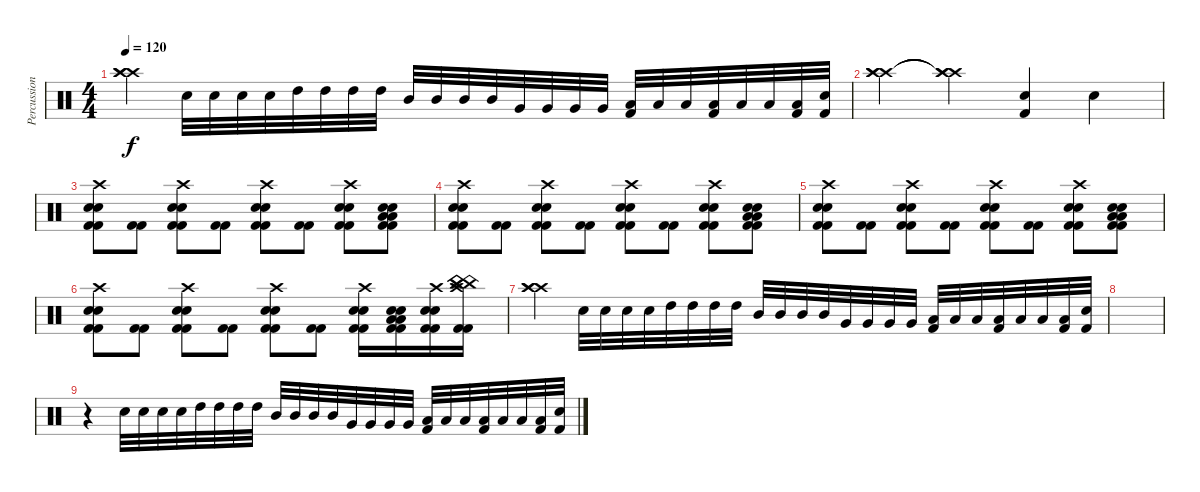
\track ("Percussions" "Percussion") {instrument percussion}
\staff {score}
\articulation defaults
\ts (4 4)
\tempo 120
\clef neutral
\ks c
("Crash high (hit)" "Crash high (hit)" "Crash high (hit)").4{dy f} "Electric Snare (hit)".32 "Electric Snare (hit)".32 "Electric Snare (hit)".32 "Electric Snare (hit)".32 "High Tom (hit)".32 "High Tom (hit)".32 "High Tom (hit)".32 "High Tom (hit)".32 "Mid Tom (hit)".32 "Mid Tom (hit)".32 "Mid Tom (hit)".32 "Mid Tom (hit)".32 "Very Low Tom (hit)".32 "Very Low Tom (hit)".32 "Very Low Tom (hit)".32 "Very Low Tom (hit)".32 ("Low Floor Tom (hit)" "Kick (hit) 2").32 "Low Floor Tom (hit)".32 "Low Floor Tom (hit)".32 ("Low Floor Tom (hit)" "Kick (hit) 2").32 "Low Floor Tom (hit)".32 "Low Floor Tom (hit)".32 ("Low Floor Tom (hit)" "Kick (hit) 2").32 ("Electric Snare (hit)" "Kick (hit) 2").32 |
("Crash high (hit)" "Crash high (hit)" "Crash high (hit)").4 ("Crash high (hit)"{t} "Crash high (hit)"{t} "Crash high (hit)"{t}).4 ("Electric Snare (hit)" "Kick (hit) 2").4 "Electric Snare (hit)".4 |
("Crash high (hit)" "Electric Snare (hit)" "Electric Snare (hit)" "Kick (hit) 2" "Kick (hit) 2").8 ("Kick (hit) 2" "Kick (hit) 2").8 ("Crash high (hit)" "Electric Snare (hit)" "Electric Snare (hit)" "Kick (hit) 2" "Kick (hit) 2").8 ("Kick (hit) 2" "Kick (hit) 2").8 ("Crash high (hit)" "Electric Snare (hit)" "Electric Snare (hit)" "Kick (hit) 2" "Kick (hit) 2").8 ("Kick (hit) 2" "Kick (hit) 2").8 ("Crash high (hit)" "Electric Snare (hit)" "Electric Snare (hit)" "Kick (hit) 2" "Kick (hit) 2").8 ("Low Floor Tom (hit)" "Low Floor Tom (hit)" "Electric Snare (hit)" "Electric Snare (hit)" "Kick (hit) 2" "Kick (hit) 2").8 |
("Crash high (hit)" "Electric Snare (hit)" "Electric Snare (hit)" "Kick (hit) 2" "Kick (hit) 2").8 ("Kick (hit) 2" "Kick (hit) 2").8 ("Crash high (hit)" "Electric Snare (hit)" "Electric Snare (hit)" "Kick (hit) 2" "Kick (hit) 2").8 ("Kick (hit) 2" "Kick (hit) 2").8 ("Crash high (hit)" "Electric Snare (hit)" "Electric Snare (hit)" "Kick (hit) 2" "Kick (hit) 2").8 ("Kick (hit) 2" "Kick (hit) 2").8 ("Crash high (hit)" "Electric Snare (hit)" "Electric Snare (hit)" "Kick (hit) 2" "Kick (hit) 2").8 ("Low Floor Tom (hit)" "Low Floor Tom (hit)" "Electric Snare (hit)" "Electric Snare (hit)" "Kick (hit) 2" "Kick (hit) 2").8 |
("Crash high (hit)" "Electric Snare (hit)" "Electric Snare (hit)" "Kick (hit) 2" "Kick (hit) 2").8 ("Kick (hit) 2" "Kick (hit) 2").8 ("Crash high (hit)" "Electric Snare (hit)" "Electric Snare (hit)" "Kick (hit) 2" "Kick (hit) 2").8 ("Kick (hit) 2" "Kick (hit) 2").8 ("Crash high (hit)" "Electric Snare (hit)" "Electric Snare (hit)" "Kick (hit) 2" "Kick (hit) 2").8 ("Kick (hit) 2" "Kick (hit) 2").8 ("Crash high (hit)" "Electric Snare (hit)" "Electric Snare (hit)" "Kick (hit) 2" "Kick (hit) 2").8 ("Low Floor Tom (hit)" "Low Floor Tom (hit)" "Electric Snare (hit)" "Electric Snare (hit)" "Kick (hit) 2" "Kick (hit) 2").8 |
("Crash high (hit)" "Electric Snare (hit)" "Electric Snare (hit)" "Kick (hit) 2" "Kick (hit) 2").8 ("Kick (hit) 2" "Kick (hit) 2").8 ("Crash high (hit)" "Electric Snare (hit)" "Electric Snare (hit)" "Kick (hit) 2" "Kick (hit) 2").8 ("Kick (hit) 2" "Kick (hit) 2").8 ("Crash high (hit)" "Electric Snare (hit)" "Electric Snare (hit)" "Kick (hit) 2" "Kick (hit) 2").8 ("Kick (hit) 2" "Kick (hit) 2").8 ("Crash high (hit)" "Electric Snare (hit)" "Electric Snare (hit)" "Kick (hit) 2" "Kick (hit) 2").16 ("Low Floor Tom (hit)" "Low Floor Tom (hit)" "Electric Snare (hit)" "Electric Snare (hit)" "Kick (hit) 2" "Kick (hit) 2").16 ("Crash high (hit)" "Electric Snare (hit)" "Electric Snare (hit)" "Kick (hit) 2" "Kick (hit) 2").16 ("China (hit)" "China (hit)" "China (hit)" "Crash high (hit)" "Kick (hit) 2" "Kick (hit) 2").16 |
("Crash high (hit)" "Crash high (hit)" "Crash high (hit)").4 "Electric Snare (hit)".32 "Electric Snare (hit)".32 "Electric Snare (hit)".32 "Electric Snare (hit)".32 "High Tom (hit)".32 "High Tom (hit)".32 "High Tom (hit)".32 "High Tom (hit)".32 "Mid Tom (hit)".32 "Mid Tom (hit)".32 "Mid Tom (hit)".32 "Mid Tom (hit)".32 "Very Low Tom (hit)".32 "Very Low Tom (hit)".32 "Very Low Tom (hit)".32 "Very Low Tom (hit)".32 ("Low Floor Tom (hit)" "Kick (hit) 2").32 "Low Floor Tom (hit)".32 "Low Floor Tom (hit)".32 ("Low Floor Tom (hit)" "Kick (hit) 2").32 "Low Floor Tom (hit)".32 "Low Floor Tom (hit)".32 ("Low Floor Tom (hit)" "Kick (hit) 2").32 ("Electric Snare (hit)" "Kick (hit) 2").32 |
|
r.4 "Electric Snare (hit)".32 "Electric Snare (hit)".32 "Electric Snare (hit)".32 "Electric Snare (hit)".32 "High Tom (hit)".32 "High Tom (hit)".32 "High Tom (hit)".32 "High Tom (hit)".32 "Mid Tom (hit)".32 "Mid Tom (hit)".32 "Mid Tom (hit)".32 "Mid Tom (hit)".32 "Very Low Tom (hit)".32 "Very Low Tom (hit)".32 "Very Low Tom (hit)".32 "Very Low Tom (hit)".32 ("Low Floor Tom (hit)" "Kick (hit) 2").32 "Low Floor Tom (hit)".32 "Low Floor Tom (hit)".32 ("Low Floor Tom (hit)" "Kick (hit) 2").32 "Low Floor Tom (hit)".32 "Low Floor Tom (hit)".32 ("Low Floor Tom (hit)" "Kick (hit) 2").32 ("Electric Snare (hit)" "Kick (hit) 2").32
